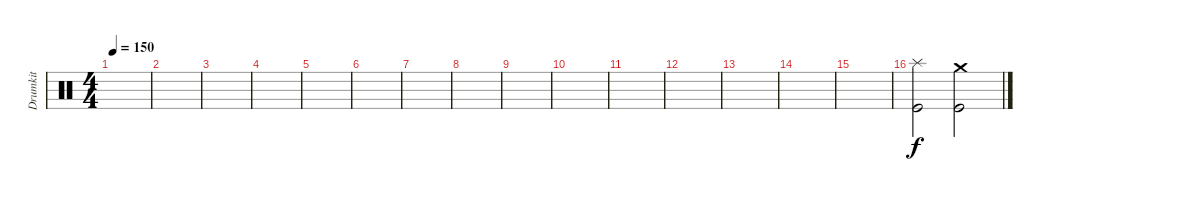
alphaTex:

\track ("Drumkit" "Drumkit") {instrument percussion}
\staff {score}
\articulation defaults
\ts (4 4)
\tempo 150
\clef neutral
\ks c
|
|
|
|
|
|
|
|
|
|
|
|
|
|
|
("Kick (hit)" "Splash (hit)").2 ("Kick (hit)" "Crash medium (hit)").2
